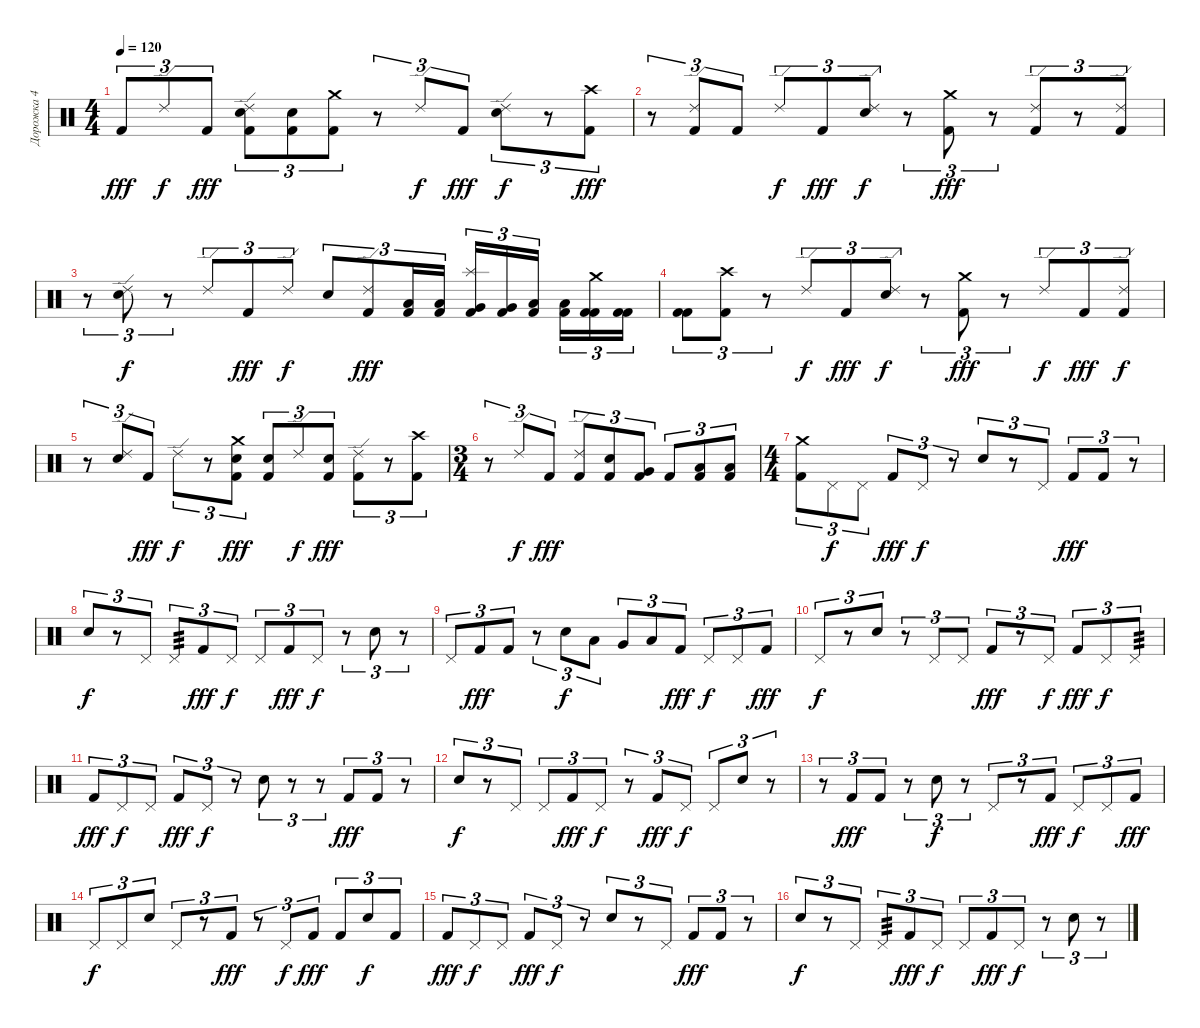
\track ("Дорожка 4" "Дорожка 4") {instrument percussion}
\staff {score}
\articulation defaults
\ts (4 4)
\tempo 120
\clef neutral
\ks c "Kick (hit) 2".8{tu (3 2) dy fff} "Ride (edge) 2".8{tu (3 2) dy f} "Kick (hit) 2".8{tu (3 2) dy fff}
("Ride (edge) 2" "Electric Snare (hit)" "Kick (hit) 2").8{tu (3 2)} ("Electric Snare (hit)" "Kick (hit) 2").8{tu (3 2)} ("Crash medium (hit)" "Kick (hit) 2").8{tu (3 2)} r.8{tu (3 2)} "Ride (edge) 2".8{tu (3 2) dy f} "Kick (hit) 2".8{tu (3 2) dy fff} ("Ride (edge) 2" "Electric Snare (hit)").8{tu (3 2) dy f} r.8{tu (3 2)} ("Crash high (hit)" "Kick (hit) 2").8{tu (3 2) dy fff} |
r.8{tu (3 2)} ("Ride (edge) 2" "Kick (hit) 2").8{tu (3 2)} "Kick (hit) 2".8{tu (3 2)} "Ride (edge) 2".8{tu (3 2) dy f} "Kick (hit) 2".8{tu (3 2) dy fff} ("Ride (edge) 2" "Electric Snare (hit)").8{tu (3 2) dy f} r.8{tu (3 2)} ("Crash medium (hit)" "Kick (hit) 2").8{tu (3 2) dy fff} r.8{tu (3 2)} ("Ride (edge) 2" "Kick (hit) 2").8{tu (3 2)} r.8{tu (3 2)} ("Ride (edge) 2" "Kick (hit) 2").8{tu (3 2)} |
r.8{tu (3 2)} ("Ride (edge) 2" "Electric Snare (hit)").8{tu (3 2) dy f} r.8{tu (3 2)} "Ride (edge) 2".8{tu (3 2)} "Kick (hit) 2".8{tu (3 2) dy fff} "Ride (edge) 2".8{tu (3 2) dy f} "Electric Snare (hit)".8{tu (3 2)} ("Ride (edge) 2" "Kick (hit) 2").8{tu (3 2) dy fff} ("Low Tom (hit)" "Kick (hit) 2").16{tu (3 2)} ("Low Tom (hit)" "Kick (hit) 2").16{tu (3 2)} ("Splash (hit)" "Very Low Tom (hit)" "Kick (hit) 2").16{tu (3 2)} ("Very Low Tom (hit)" "Kick (hit) 2").16{tu (3 2)} ("Low Floor Tom (hit)" "Kick (hit) 2").16{tu (3 2) beam splitsecondary} ("Low Floor Tom (hit)" "Kick (hit) 2").16{tu (3 2)} ("Crash medium (hit)" "Kick (hit) 2" "Kick (hit) 2").16{tu (3 2)} ("Kick (hit) 2" "Kick (hit) 2").16{tu (3 2)} |
("Kick (hit) 2" "Kick (hit) 2").8{tu (3 2)} ("Crash high (hit)" "Kick (hit) 2").8{tu (3 2)} r.8{tu (3 2)} "Ride (edge) 2".8{tu (3 2) dy f} "Kick (hit) 2".8{tu (3 2) dy fff} ("Ride (edge) 2" "Electric Snare (hit)").8{tu (3 2) dy f} r.8{tu (3 2)} ("Crash medium (hit)" "Kick (hit) 2").8{tu (3 2) dy fff} r.8{tu (3 2)} "Ride (edge) 2".8{tu (3 2) dy f} "Kick (hit) 2".8{tu (3 2) dy fff} ("Ride (edge) 2" "Kick (hit) 2").8{tu (3 2) dy f} |
r.8{tu (3 2)} ("Ride (edge) 2" "Electric Snare (hit)").8{tu (3 2)} "Kick (hit) 2".8{tu (3 2) dy fff} "Ride (edge) 2".8{tu (3 2) dy f} r.8{tu (3 2)} ("Crash medium (hit)" "Electric Snare (hit)" "Kick (hit) 2").8{tu (3 2) dy fff} ("Electric Snare (hit)" "Kick (hit) 2").8{tu (3 2)} "Ride (edge) 2".8{tu (3 2) dy f} ("Electric Snare (hit)" "Kick (hit) 2").8{tu (3 2) dy fff} ("Ride (edge) 2" "Kick (hit) 2").8{tu (3 2)} r.8{tu (3 2)} ("Crash high (hit)" "Kick (hit) 2").8{tu (3 2)} |
\ts (3 4)
r.8{tu (3 2)} "Ride (edge) 2".8{tu (3 2) dy f} "Kick (hit) 2".8{tu (3 2) dy fff} ("Ride (edge) 2" "Kick (hit) 2").8{tu (3 2)} ("Electric Snare (hit)" "Kick (hit) 2").8{tu (3 2)} ("Very Low Tom (hit)" "Kick (hit) 2").8{tu (3 2)} "Kick (hit) 2".8{tu (3 2)} ("Low Tom (hit)" "Kick (hit) 2").8{tu (3 2)} ("Low Tom (hit)" "Kick (hit) 2").8{tu (3 2)} |
\ts (4 4)
("Crash medium (hit)" "Kick (hit) 2").8{tu (3 2)} "Pedal Hi-Hat (hit)".8{tu (3 2) dy f} "Pedal Hi-Hat (hit)".8{tu (3 2)} "Kick (hit) 2".8{tu (3 2) dy fff} "Pedal Hi-Hat (hit)".8{tu (3 2) dy f} r.8{tu (3 2)} "Snare (hit) 2".8{tu (3 2)} r.8{tu (3 2)} "Pedal Hi-Hat (hit)".8{tu (3 2)} "Kick (hit) 2".8{tu (3 2) dy fff} "Kick (hit) 2".8{tu (3 2)} r.8{tu (3 2)} |
"Snare (hit) 2".8{tu (3 2) dy f} r.8{tu (3 2)} "Pedal Hi-Hat (hit)".8{tu (3 2)} "Pedal Hi-Hat (hit)".8{tu (3 2) tp 3} "Kick (hit) 2".8{tu (3 2) dy fff} "Pedal Hi-Hat (hit)".8{tu (3 2) dy f} "Pedal Hi-Hat (hit)".8{tu (3 2)} "Kick (hit) 2".8{tu (3 2) dy fff} "Pedal Hi-Hat (hit)".8{tu (3 2) dy f} r.8{tu (3 2)} "Snare (hit) 2".8{tu (3 2)} r.8{tu (3 2)} |
"Pedal Hi-Hat (hit)".8{tu (3 2)} "Kick (hit) 2".8{tu (3 2) dy fff} "Kick (hit) 2".8{tu (3 2)} r.8{tu (3 2)} "Snare (hit) 2".8{tu (3 2) dy f} "Low Tom (hit)".8{tu (3 2)} "Very Low Tom (hit)".8{tu (3 2)} "Low Floor Tom (hit)".8{tu (3 2)} "Kick (hit) 2".8{tu (3 2) dy fff} "Pedal Hi-Hat (hit)".8{tu (3 2) dy f} "Pedal Hi-Hat (hit)".8{tu (3 2)} "Kick (hit) 2".8{tu (3 2) dy fff} |
"Pedal Hi-Hat (hit)".8{tu (3 2) dy f} r.8{tu (3 2)} "Snare (hit) 2".8{tu (3 2)} r.8{tu (3 2)} "Pedal Hi-Hat (hit)".8{tu (3 2)} "Pedal Hi-Hat (hit)".8{tu (3 2)} "Kick (hit) 2".8{tu (3 2) dy fff} r.8{tu (3 2)} "Pedal Hi-Hat (hit)".8{tu (3 2) dy f} "Kick (hit) 2".8{tu (3 2) dy fff} "Pedal Hi-Hat (hit)".8{tu (3 2) dy f} "Pedal Hi-Hat (hit)".8{tu (3 2) tp 3} |
"Kick (hit) 2".8{tu (3 2) dy fff} "Pedal Hi-Hat (hit)".8{tu (3 2) dy f} "Pedal Hi-Hat (hit)".8{tu (3 2)} "Kick (hit) 2".8{tu (3 2) dy fff} "Pedal Hi-Hat (hit)".8{tu (3 2) dy f} r.8{tu (3 2)} "Snare (hit) 2".8{tu (3 2)} r.8{tu (3 2)} r.8{tu (3 2)} "Kick (hit) 2".8{tu (3 2) dy fff} "Kick (hit) 2".8{tu (3 2)} r.8{tu (3 2)} |
"Snare (hit) 2".8{tu (3 2) dy f} r.8{tu (3 2)} "Pedal Hi-Hat (hit)".8{tu (3 2)} "Pedal Hi-Hat (hit)".8{tu (3 2)} "Kick (hit) 2".8{tu (3 2) dy fff} "Pedal Hi-Hat (hit)".8{tu (3 2) dy f} r.8{tu (3 2)} "Kick (hit) 2".8{tu (3 2) dy fff} "Pedal Hi-Hat (hit)".8{tu (3 2) dy f} "Pedal Hi-Hat (hit)".8{tu (3 2)} "Snare (hit) 2".8{tu (3 2)} r.8{tu (3 2)} |
r.8{tu (3 2)} "Kick (hit) 2".8{tu (3 2) dy fff} "Kick (hit) 2".8{tu (3 2)} r.8{tu (3 2)} "Snare (hit) 2".8{tu (3 2) dy f} r.8{tu (3 2)} "Pedal Hi-Hat (hit)".8{tu (3 2)} r.8{tu (3 2)} "Kick (hit) 2".8{tu (3 2) dy fff} "Pedal Hi-Hat (hit)".8{tu (3 2) dy f} "Pedal Hi-Hat (hit)".8{tu (3 2)} "Kick (hit) 2".8{tu (3 2) dy fff} |
"Pedal Hi-Hat (hit)".8{tu (3 2) dy f} "Pedal Hi-Hat (hit)".8{tu (3 2)} "Snare (hit) 2".8{tu (3 2)} "Pedal Hi-Hat (hit)".8{tu (3 2)} r.8{tu (3 2)} "Kick (hit) 2".8{tu (3 2) dy fff} r.8{tu (3 2)} "Pedal Hi-Hat (hit)".8{tu (3 2) dy f} "Kick (hit) 2".8{tu (3 2) dy fff} "Kick (hit) 2".8{tu (3 2)} "Snare (hit) 2".8{tu (3 2) dy f} "Kick (hit) 2".8{tu (3 2)} |
"Kick (hit) 2".8{tu (3 2) dy fff} "Pedal Hi-Hat (hit)".8{tu (3 2) dy f} "Pedal Hi-Hat (hit)".8{tu (3 2)} "Kick (hit) 2".8{tu (3 2) dy fff} "Pedal Hi-Hat (hit)".8{tu (3 2) dy f} r.8{tu (3 2)} "Snare (hit) 2".8{tu (3 2)} r.8{tu (3 2)} "Pedal Hi-Hat (hit)".8{tu (3 2)} "Kick (hit) 2".8{tu (3 2) dy fff} "Kick (hit) 2".8{tu (3 2)} r.8{tu (3 2)} |
"Snare (hit) 2".8{tu (3 2) dy f} r.8{tu (3 2)} "Pedal Hi-Hat (hit)".8{tu (3 2)} "Pedal Hi-Hat (hit)".8{tu (3 2) tp 3} "Kick (hit) 2".8{tu (3 2) dy fff} "Pedal Hi-Hat (hit)".8{tu (3 2) dy f} "Pedal Hi-Hat (hit)".8{tu (3 2)} "Kick (hit) 2".8{tu (3 2) dy fff} "Pedal Hi-Hat (hit)".8{tu (3 2) dy f} r.8{tu (3 2)} "Snare (hit) 2".8{tu (3 2)} r.8{tu (3 2)}
